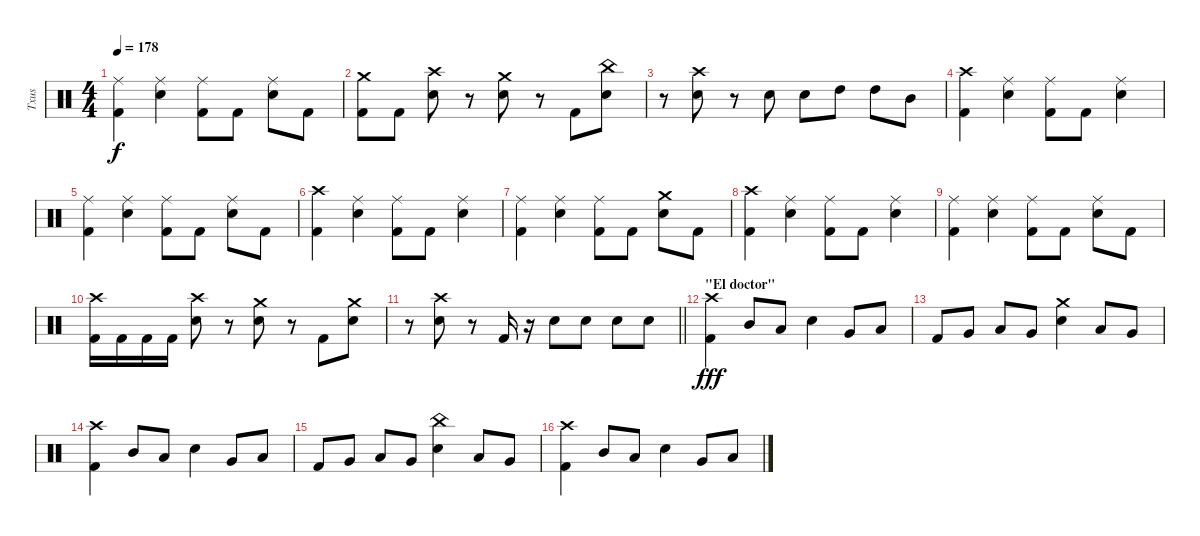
\track ("Txus" "Txus") {instrument percussion}
\staff {score}
\articulation defaults
\ts (4 4)
\tempo 178
\clef neutral
\ks c
("Ride (middle)" "Kick (hit) 2").4{dy f} ("Ride (middle)" "Electric Snare (hit)").4 ("Ride (middle)" "Kick (hit) 2").8 "Kick (hit) 2".8 ("Ride (middle)" "Electric Snare (hit)").8 "Kick (hit) 2".8 |
("Crash medium (hit)" "Kick (hit) 2").8 "Kick (hit) 2".8 ("Crash high (hit)" "Electric Snare (hit)").8 r.8 ("Crash medium (hit)" "Electric Snare (hit)").8 r.8 "Kick (hit) 2".8 ("China (hit)" "Electric Snare (hit)").8 |
r.8 ("Crash high (hit)" "Electric Snare (hit)").8 r.8 "Electric Snare (hit)".8 "Electric Snare (hit)".8 "High Tom (hit)".8 "High Tom (hit)".8 "Mid Tom (hit)".8 |
("Crash high (hit)" "Kick (hit) 2").4 ("Ride (middle)" "Electric Snare (hit)").4 ("Ride (middle)" "Kick (hit) 2").8 "Kick (hit) 2".8 ("Ride (middle)" "Electric Snare (hit)").4 |
("Ride (middle)" "Kick (hit) 2").4 ("Ride (middle)" "Electric Snare (hit)").4 ("Ride (middle)" "Kick (hit) 2").8 "Kick (hit) 2".8 ("Ride (middle)" "Electric Snare (hit)").8 "Kick (hit) 2".8 |
("Crash high (hit)" "Kick (hit) 2").4 ("Ride (middle)" "Electric Snare (hit)").4 ("Ride (middle)" "Kick (hit) 2").8 "Kick (hit) 2".8 ("Ride (middle)" "Electric Snare (hit)").4 |
("Ride (middle)" "Kick (hit) 2").4 ("Ride (middle)" "Electric Snare (hit)").4 ("Ride (middle)" "Kick (hit) 2").8 "Kick (hit) 2".8 ("Crash medium (hit)" "Electric Snare (hit)").8 "Kick (hit) 2".8 |
("Crash high (hit)" "Kick (hit) 2").4 ("Ride (middle)" "Electric Snare (hit)").4 ("Ride (middle)" "Kick (hit) 2").8 "Kick (hit) 2".8 ("Ride (middle)" "Electric Snare (hit)").4 |
("Ride (middle)" "Kick (hit) 2").4 ("Ride (middle)" "Electric Snare (hit)").4 ("Ride (middle)" "Kick (hit) 2").8 "Kick (hit) 2".8 ("Ride (middle)" "Electric Snare (hit)").8 "Kick (hit) 2".8 |
("Crash high (hit)" "Kick (hit) 2").16 "Kick (hit) 2".16 "Kick (hit) 2".16 "Kick (hit) 2".16 ("Crash high (hit)" "Electric Snare (hit)").8 r.8 ("Crash medium (hit)" "Electric Snare (hit)").8 r.8 "Kick (hit) 2".8 ("Crash medium (hit)" "Electric Snare (hit)").8 |
\barLineRight lightlight
r.8 ("Crash high (hit)" "Electric Snare (hit)").8 r.8 "Kick (hit) 2".16 r.16 "Electric Snare (hit)".8 "Electric Snare (hit)".8 "Electric Snare (hit)".8 "Electric Snare (hit)".8 |
\section ("" "\"El doctor\"")
("Crash high (hit)" "Kick (hit) 2").4{dy fff} "Mid Tom (hit)".8 "Low Tom (hit)".8 "Electric Snare (hit)".4 "Very Low Tom (hit)".8 "Low Tom (hit)".8 |
"Kick (hit) 2".8 "Very Low Tom (hit)".8 "Low Tom (hit)".8 "Very Low Tom (hit)".8 ("Crash medium (hit)" "Electric Snare (hit)").4 "Low Tom (hit)".8 "Very Low Tom (hit)".8 |
("Crash high (hit)" "Kick (hit) 2").4 "Mid Tom (hit)".8 "Low Tom (hit)".8 "Electric Snare (hit)".4 "Very Low Tom (hit)".8 "Low Tom (hit)".8 |
"Kick (hit) 2".8 "Very Low Tom (hit)".8 "Low Tom (hit)".8 "Very Low Tom (hit)".8 ("China (hit)" "Electric Snare (hit)").4 "Low Tom (hit)".8 "Very Low Tom (hit)".8 |
("Crash high (hit)" "Kick (hit) 2").4 "Mid Tom (hit)".8 "Low Tom (hit)".8 "Electric Snare (hit)".4 "Very Low Tom (hit)".8 "Low Tom (hit)".8
